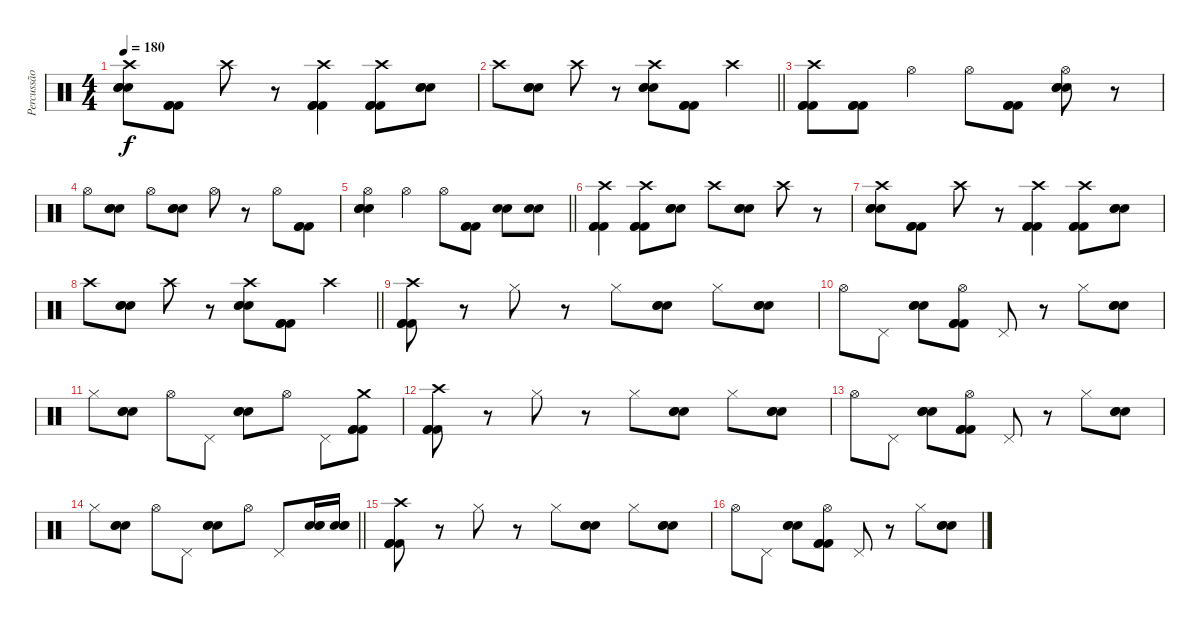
\track ("Percussão" "Percussão") {instrument percussion}
\staff {score}
\articulation defaults
\ts (4 4)
\tempo 180
\clef neutral
\ks c
("Crash high (hit)" "Electric Snare (hit)" "Electric Snare (hit)" "Electric Snare (hit)").8{dy f} ("Kick (hit) 2" "Kick (hit) 2" "Kick (hit) 2").8 "Crash high (hit)".8 r.8 ("Crash high (hit)" "Kick (hit) 2" "Kick (hit) 2" "Kick (hit) 2").4 ("Crash high (hit)" "Kick (hit) 2" "Kick (hit) 2" "Kick (hit) 2").8 ("Electric Snare (hit)" "Electric Snare (hit)" "Electric Snare (hit)").8 |
\barLineRight lightlight "Crash high (hit)".8
("Electric Snare (hit)" "Electric Snare (hit)" "Electric Snare (hit)").8 "Crash high (hit)".8 r.8 ("Crash high (hit)" "Electric Snare (hit)" "Electric Snare (hit)" "Electric Snare (hit)").8 ("Kick (hit) 2" "Kick (hit) 2" "Kick (hit) 2").8 "Crash high (hit)".4 |
\section ("" "")
("Crash high (hit)" "Kick (hit) 2" "Kick (hit) 2" "Kick (hit) 2").8 ("Kick (hit) 2" "Kick (hit) 2" "Kick (hit) 2").8 "Hi-Hat (open)".4 "Hi-Hat (open)".8 ("Kick (hit) 2" "Kick (hit) 2" "Kick (hit) 2").8 ("Hi-Hat (open)" "Electric Snare (hit)" "Electric Snare (hit)" "Electric Snare (hit)").8 r.8 |
"Hi-Hat (open)".8 ("Electric Snare (hit)" "Electric Snare (hit)" "Electric Snare (hit)").8 "Hi-Hat (open)".8 ("Electric Snare (hit)" "Electric Snare (hit)" "Electric Snare (hit)").8 "Hi-Hat (open)".8 r.8 "Hi-Hat (open)".8 ("Kick (hit) 2" "Kick (hit) 2" "Kick (hit) 2").8 |
\barLineRight lightlight
("Hi-Hat (open)" "Electric Snare (hit)" "Electric Snare (hit)" "Electric Snare (hit)").4 "Hi-Hat (open)".4 "Hi-Hat (open)".8 ("Kick (hit) 2" "Kick (hit) 2" "Kick (hit) 2").8 ("Electric Snare (hit)" "Electric Snare (hit)").8 ("Electric Snare (hit)" "Electric Snare (hit)").8 |
\section ("" "")
("Crash high (hit)" "Kick (hit) 2" "Kick (hit) 2" "Kick (hit) 2").4 ("Crash high (hit)" "Kick (hit) 2" "Kick (hit) 2" "Kick (hit) 2").8 ("Electric Snare (hit)" "Electric Snare (hit)" "Electric Snare (hit)").8 "Crash high (hit)".8 ("Electric Snare (hit)" "Electric Snare (hit)" "Electric Snare (hit)").8 "Crash high (hit)".8 r.8 |
("Crash high (hit)" "Electric Snare (hit)" "Electric Snare (hit)" "Electric Snare (hit)").8 ("Kick (hit) 2" "Kick (hit) 2" "Kick (hit) 2").8 "Crash high (hit)".8 r.8 ("Crash high (hit)" "Kick (hit) 2" "Kick (hit) 2" "Kick (hit) 2").4 ("Crash high (hit)" "Kick (hit) 2" "Kick (hit) 2" "Kick (hit) 2").8 ("Electric Snare (hit)" "Electric Snare (hit)" "Electric Snare (hit)").8 |
\barLineRight lightlight "Crash high (hit)".8
("Electric Snare (hit)" "Electric Snare (hit)" "Electric Snare (hit)").8 "Crash high (hit)".8 r.8 ("Crash high (hit)" "Electric Snare (hit)" "Electric Snare (hit)" "Electric Snare (hit)").8 ("Kick (hit) 2" "Kick (hit) 2" "Kick (hit) 2").8 "Crash high (hit)".4 |
\section ("" "")
("Crash high (hit)" "Kick (hit) 2" "Kick (hit) 2" "Kick (hit) 2").8 r.8 "Hi-Hat (closed)".8 r.8 "Hi-Hat (closed)".8 ("Electric Snare (hit)" "Electric Snare (hit)" "Electric Snare (hit)").8 "Hi-Hat (closed)".8 ("Electric Snare (hit)" "Electric Snare (hit)" "Electric Snare (hit)").8 |
"Hi-Hat (open)".8 "Pedal Hi-Hat (hit)".8 ("Electric Snare (hit)" "Electric Snare (hit)" "Electric Snare (hit)").8 ("Hi-Hat (open)" "Kick (hit) 2" "Kick (hit) 2" "Kick (hit) 2").8 "Pedal Hi-Hat (hit)".8 r.8 "Hi-Hat (closed)".8 ("Electric Snare (hit)" "Electric Snare (hit)" "Electric Snare (hit)").8 |
"Hi-Hat (closed)".8 ("Electric Snare (hit)" "Electric Snare (hit)" "Electric Snare (hit)").8 "Hi-Hat (open)".8 "Pedal Hi-Hat (hit)".8 ("Electric Snare (hit)" "Electric Snare (hit)" "Electric Snare (hit)").8 "Hi-Hat (open)".8 "Pedal Hi-Hat (hit)".8 ("Crash medium (hit)" "Kick (hit) 2" "Kick (hit) 2" "Kick (hit) 2").8 |
("Crash high (hit)" "Kick (hit) 2" "Kick (hit) 2" "Kick (hit) 2").8 r.8 "Hi-Hat (closed)".8 r.8 "Hi-Hat (closed)".8 ("Electric Snare (hit)" "Electric Snare (hit)" "Electric Snare (hit)").8 "Hi-Hat (closed)".8 ("Electric Snare (hit)" "Electric Snare (hit)" "Electric Snare (hit)").8 |
"Hi-Hat (open)".8 "Pedal Hi-Hat (hit)".8 ("Electric Snare (hit)" "Electric Snare (hit)" "Electric Snare (hit)").8 ("Hi-Hat (open)" "Kick (hit) 2" "Kick (hit) 2" "Kick (hit) 2").8 "Pedal Hi-Hat (hit)".8 r.8 "Hi-Hat (closed)".8 ("Electric Snare (hit)" "Electric Snare (hit)" "Electric Snare (hit)").8 |
\barLineRight lightlight "Hi-Hat (closed)".8
("Electric Snare (hit)" "Electric Snare (hit)" "Electric Snare (hit)").8 "Hi-Hat (open)".8 "Pedal Hi-Hat (hit)".8 ("Electric Snare (hit)" "Electric Snare (hit)" "Electric Snare (hit)").8 "Hi-Hat (open)".8 "Pedal Hi-Hat (hit)".8 ("Electric Snare (hit)" "Electric Snare (hit)" "Electric Snare (hit)").16 ("Electric Snare (hit)" "Electric Snare (hit)" "Electric Snare (hit)").16 |
\section ("" "")
("Crash high (hit)" "Kick (hit) 2" "Kick (hit) 2" "Kick (hit) 2").8 r.8 "Hi-Hat (closed)".8 r.8 "Hi-Hat (closed)".8 ("Electric Snare (hit)" "Electric Snare (hit)" "Electric Snare (hit)").8 "Hi-Hat (closed)".8 ("Electric Snare (hit)" "Electric Snare (hit)" "Electric Snare (hit)").8 |
"Hi-Hat (open)".8 "Pedal Hi-Hat (hit)".8 ("Electric Snare (hit)" "Electric Snare (hit)" "Electric Snare (hit)").8 ("Hi-Hat (open)" "Kick (hit) 2" "Kick (hit) 2" "Kick (hit) 2").8 "Pedal Hi-Hat (hit)".8 r.8 "Hi-Hat (closed)".8 ("Electric Snare (hit)" "Electric Snare (hit)" "Electric Snare (hit)").8
